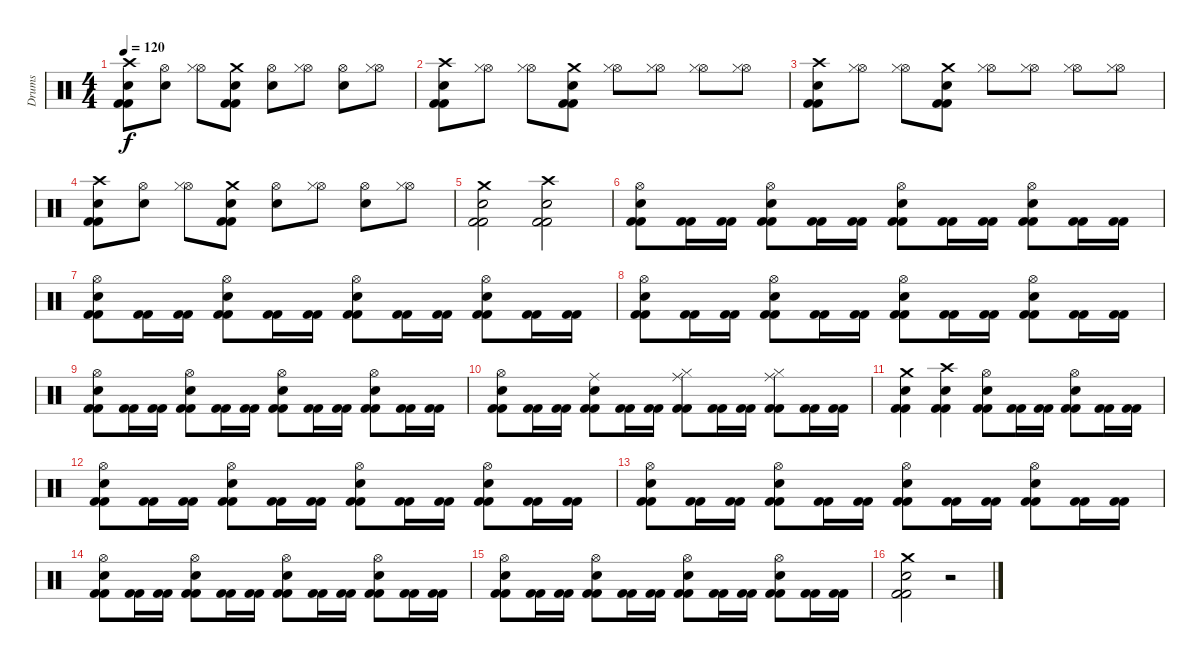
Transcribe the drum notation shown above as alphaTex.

\track ("Drums" "Drums") {instrument percussion}
\staff {score}
\articulation defaults
\ts (4 4)
\tempo 120
\clef neutral
\ks c
("Crash high (hit)" "Snare (hit) 2" "Kick (hit) 2" "Kick (hit) 2").8{dy f} ("Hi-Hat (open)" "Snare (hit) 2").8 ("Hi-Hat (open)" "Hi-Hat (closed)").8 ("Crash medium (hit)" "Snare (hit) 2" "Kick (hit) 2" "Kick (hit) 2").8 ("Hi-Hat (open)" "Snare (hit) 2").8 ("Hi-Hat (open)" "Hi-Hat (closed)").8 ("Hi-Hat (open)" "Snare (hit) 2").8 ("Hi-Hat (open)" "Hi-Hat (closed)").8 |
("Crash high (hit)" "Snare (hit) 2" "Kick (hit) 2" "Kick (hit) 2").8 ("Hi-Hat (open)" "Hi-Hat (closed)").8 ("Hi-Hat (open)" "Hi-Hat (closed)").8 ("Crash medium (hit)" "Snare (hit) 2" "Kick (hit) 2" "Kick (hit) 2").8 ("Hi-Hat (open)" "Hi-Hat (closed)").8 ("Hi-Hat (open)" "Hi-Hat (closed)").8 ("Hi-Hat (open)" "Hi-Hat (closed)").8 ("Hi-Hat (open)" "Hi-Hat (closed)").8 |
("Crash high (hit)" "Snare (hit) 2" "Kick (hit) 2" "Kick (hit) 2").8 ("Hi-Hat (open)" "Hi-Hat (closed)").8 ("Hi-Hat (open)" "Hi-Hat (closed)").8 ("Crash medium (hit)" "Snare (hit) 2" "Kick (hit) 2" "Kick (hit) 2").8 ("Hi-Hat (open)" "Hi-Hat (closed)").8 ("Hi-Hat (open)" "Hi-Hat (closed)").8 ("Hi-Hat (open)" "Hi-Hat (closed)").8 ("Hi-Hat (open)" "Hi-Hat (closed)").8 |
("Crash high (hit)" "Snare (hit) 2" "Kick (hit) 2" "Kick (hit) 2").8 ("Hi-Hat (open)" "Snare (hit) 2").8 ("Hi-Hat (open)" "Hi-Hat (closed)").8 ("Crash medium (hit)" "Snare (hit) 2" "Kick (hit) 2" "Kick (hit) 2").8 ("Hi-Hat (open)" "Snare (hit) 2").8 ("Hi-Hat (open)" "Hi-Hat (closed)").8 ("Hi-Hat (open)" "Snare (hit) 2").8 ("Hi-Hat (open)" "Hi-Hat (closed)").8 |
("Crash medium (hit)" "Snare (hit) 2" "Kick (hit) 2" "Kick (hit) 2").2 ("Crash high (hit)" "Snare (hit) 2" "Kick (hit) 2" "Kick (hit) 2").2 |
("Hi-Hat (open)" "Snare (hit) 2" "Kick (hit) 2" "Kick (hit) 2").8 ("Kick (hit) 2" "Kick (hit) 2").16 ("Kick (hit) 2" "Kick (hit) 2").16 ("Hi-Hat (open)" "Snare (hit) 2" "Kick (hit) 2" "Kick (hit) 2").8 ("Kick (hit) 2" "Kick (hit) 2").16 ("Kick (hit) 2" "Kick (hit) 2").16 ("Hi-Hat (open)" "Snare (hit) 2" "Kick (hit) 2" "Kick (hit) 2").8 ("Kick (hit) 2" "Kick (hit) 2").16 ("Kick (hit) 2" "Kick (hit) 2").16 ("Hi-Hat (open)" "Snare (hit) 2" "Kick (hit) 2" "Kick (hit) 2").8 ("Kick (hit) 2" "Kick (hit) 2").16 ("Kick (hit) 2" "Kick (hit) 2").16 |
("Hi-Hat (open)" "Snare (hit) 2" "Kick (hit) 2" "Kick (hit) 2").8 ("Kick (hit) 2" "Kick (hit) 2").16 ("Kick (hit) 2" "Kick (hit) 2").16 ("Hi-Hat (open)" "Snare (hit) 2" "Kick (hit) 2" "Kick (hit) 2").8 ("Kick (hit) 2" "Kick (hit) 2").16 ("Kick (hit) 2" "Kick (hit) 2").16 ("Hi-Hat (open)" "Snare (hit) 2" "Kick (hit) 2" "Kick (hit) 2").8 ("Kick (hit) 2" "Kick (hit) 2").16 ("Kick (hit) 2" "Kick (hit) 2").16 ("Hi-Hat (open)" "Snare (hit) 2" "Kick (hit) 2" "Kick (hit) 2").8 ("Kick (hit) 2" "Kick (hit) 2").16 ("Kick (hit) 2" "Kick (hit) 2").16 |
("Hi-Hat (open)" "Snare (hit) 2" "Kick (hit) 2" "Kick (hit) 2").8 ("Kick (hit) 2" "Kick (hit) 2").16 ("Kick (hit) 2" "Kick (hit) 2").16 ("Hi-Hat (open)" "Snare (hit) 2" "Kick (hit) 2" "Kick (hit) 2").8 ("Kick (hit) 2" "Kick (hit) 2").16 ("Kick (hit) 2" "Kick (hit) 2").16 ("Hi-Hat (open)" "Snare (hit) 2" "Kick (hit) 2" "Kick (hit) 2").8 ("Kick (hit) 2" "Kick (hit) 2").16 ("Kick (hit) 2" "Kick (hit) 2").16 ("Hi-Hat (open)" "Snare (hit) 2" "Kick (hit) 2" "Kick (hit) 2").8 ("Kick (hit) 2" "Kick (hit) 2").16 ("Kick (hit) 2" "Kick (hit) 2").16 |
("Hi-Hat (open)" "Snare (hit) 2" "Kick (hit) 2" "Kick (hit) 2").8 ("Kick (hit) 2" "Kick (hit) 2").16 ("Kick (hit) 2" "Kick (hit) 2").16 ("Hi-Hat (open)" "Snare (hit) 2" "Kick (hit) 2" "Kick (hit) 2").8 ("Kick (hit) 2" "Kick (hit) 2").16 ("Kick (hit) 2" "Kick (hit) 2").16 ("Hi-Hat (open)" "Snare (hit) 2" "Kick (hit) 2" "Kick (hit) 2").8 ("Kick (hit) 2" "Kick (hit) 2").16 ("Kick (hit) 2" "Kick (hit) 2").16 ("Hi-Hat (open)" "Snare (hit) 2" "Kick (hit) 2" "Kick (hit) 2").8 ("Kick (hit) 2" "Kick (hit) 2").16 ("Kick (hit) 2" "Kick (hit) 2").16 |
("Hi-Hat (open)" "Snare (hit) 2" "Kick (hit) 2" "Kick (hit) 2").8 ("Kick (hit) 2" "Kick (hit) 2").16 ("Kick (hit) 2" "Kick (hit) 2").16 ("Ride (middle)" "Snare (hit) 2" "Kick (hit) 2" "Kick (hit) 2").8 ("Kick (hit) 2" "Kick (hit) 2").16 ("Kick (hit) 2" "Kick (hit) 2").16 ("Ride (middle)" "Hi-Hat (closed)" "Kick (hit) 2" "Kick (hit) 2").8 ("Kick (hit) 2" "Kick (hit) 2").16 ("Kick (hit) 2" "Kick (hit) 2").16 ("Ride (middle)" "Hi-Hat (closed)" "Kick (hit) 2" "Kick (hit) 2").8 ("Kick (hit) 2" "Kick (hit) 2").16 ("Kick (hit) 2" "Kick (hit) 2").16 |
("Crash medium (hit)" "Snare (hit) 2" "Kick (hit) 2" "Kick (hit) 2").4 ("Crash high (hit)" "Snare (hit) 2" "Kick (hit) 2" "Kick (hit) 2").4 ("Hi-Hat (open)" "Snare (hit) 2" "Kick (hit) 2" "Kick (hit) 2").8 ("Kick (hit) 2" "Kick (hit) 2").16 ("Kick (hit) 2" "Kick (hit) 2").16 ("Hi-Hat (open)" "Snare (hit) 2" "Kick (hit) 2" "Kick (hit) 2").8 ("Kick (hit) 2" "Kick (hit) 2").16 ("Kick (hit) 2" "Kick (hit) 2").16 |
("Hi-Hat (open)" "Snare (hit) 2" "Kick (hit) 2" "Kick (hit) 2").8 ("Kick (hit) 2" "Kick (hit) 2").16 ("Kick (hit) 2" "Kick (hit) 2").16 ("Hi-Hat (open)" "Snare (hit) 2" "Kick (hit) 2" "Kick (hit) 2").8 ("Kick (hit) 2" "Kick (hit) 2").16 ("Kick (hit) 2" "Kick (hit) 2").16 ("Hi-Hat (open)" "Snare (hit) 2" "Kick (hit) 2" "Kick (hit) 2").8 ("Kick (hit) 2" "Kick (hit) 2").16 ("Kick (hit) 2" "Kick (hit) 2").16 ("Hi-Hat (open)" "Snare (hit) 2" "Kick (hit) 2" "Kick (hit) 2").8 ("Kick (hit) 2" "Kick (hit) 2").16 ("Kick (hit) 2" "Kick (hit) 2").16 |
("Hi-Hat (open)" "Snare (hit) 2" "Kick (hit) 2" "Kick (hit) 2").8 ("Kick (hit) 2" "Kick (hit) 2").16 ("Kick (hit) 2" "Kick (hit) 2").16 ("Hi-Hat (open)" "Snare (hit) 2" "Kick (hit) 2" "Kick (hit) 2").8 ("Kick (hit) 2" "Kick (hit) 2").16 ("Kick (hit) 2" "Kick (hit) 2").16 ("Hi-Hat (open)" "Snare (hit) 2" "Kick (hit) 2" "Kick (hit) 2").8 ("Kick (hit) 2" "Kick (hit) 2").16 ("Kick (hit) 2" "Kick (hit) 2").16 ("Hi-Hat (open)" "Snare (hit) 2" "Kick (hit) 2" "Kick (hit) 2").8 ("Kick (hit) 2" "Kick (hit) 2").16 ("Kick (hit) 2" "Kick (hit) 2").16 |
("Hi-Hat (open)" "Snare (hit) 2" "Kick (hit) 2" "Kick (hit) 2").8 ("Kick (hit) 2" "Kick (hit) 2").16 ("Kick (hit) 2" "Kick (hit) 2").16 ("Hi-Hat (open)" "Snare (hit) 2" "Kick (hit) 2" "Kick (hit) 2").8 ("Kick (hit) 2" "Kick (hit) 2").16 ("Kick (hit) 2" "Kick (hit) 2").16 ("Hi-Hat (open)" "Snare (hit) 2" "Kick (hit) 2" "Kick (hit) 2").8 ("Kick (hit) 2" "Kick (hit) 2").16 ("Kick (hit) 2" "Kick (hit) 2").16 ("Hi-Hat (open)" "Snare (hit) 2" "Kick (hit) 2" "Kick (hit) 2").8 ("Kick (hit) 2" "Kick (hit) 2").16 ("Kick (hit) 2" "Kick (hit) 2").16 |
("Hi-Hat (open)" "Snare (hit) 2" "Kick (hit) 2" "Kick (hit) 2").8 ("Kick (hit) 2" "Kick (hit) 2").16 ("Kick (hit) 2" "Kick (hit) 2").16 ("Hi-Hat (open)" "Snare (hit) 2" "Kick (hit) 2" "Kick (hit) 2").8 ("Kick (hit) 2" "Kick (hit) 2").16 ("Kick (hit) 2" "Kick (hit) 2").16 ("Hi-Hat (open)" "Snare (hit) 2" "Kick (hit) 2" "Kick (hit) 2").8 ("Kick (hit) 2" "Kick (hit) 2").16 ("Kick (hit) 2" "Kick (hit) 2").16 ("Hi-Hat (open)" "Snare (hit) 2" "Kick (hit) 2" "Kick (hit) 2").8 ("Kick (hit) 2" "Kick (hit) 2").16 ("Kick (hit) 2" "Kick (hit) 2").16 |
("Crash medium (hit)" "Snare (hit) 2" "Kick (hit) 2" "Kick (hit) 2").2 r.2
